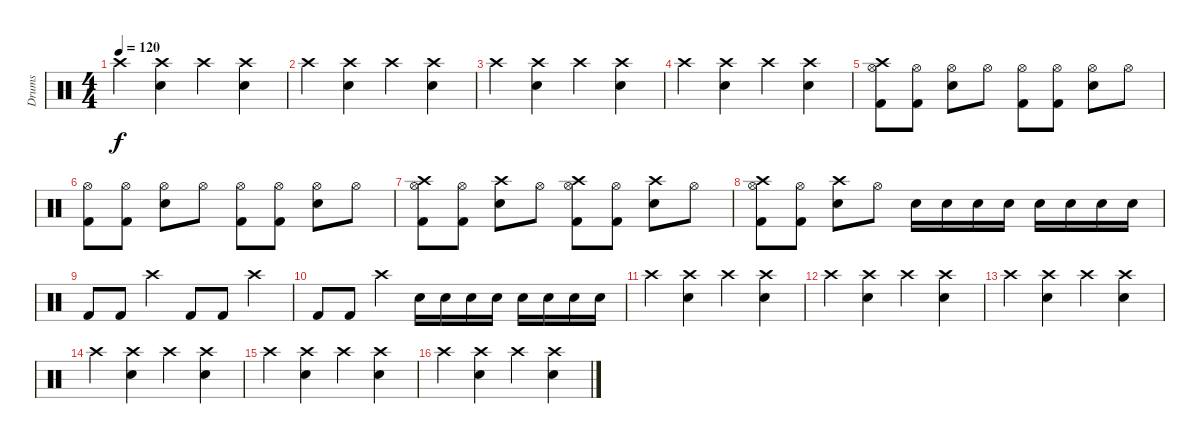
\track ("Drums" "Drums") {instrument percussion}
\staff {score}
\articulation defaults
\ts (4 4)
\tempo 120
\clef neutral
\ks c "Crash high (hit)".4{dy f}
("Crash high (hit)" "Snare (hit) 2").4 "Crash high (hit)".4 ("Crash high (hit)" "Snare (hit) 2").4 |
"Crash high (hit)".4 ("Crash high (hit)" "Snare (hit) 2").4 "Crash high (hit)".4 ("Crash high (hit)" "Snare (hit) 2").4 |
"Crash high (hit)".4 ("Crash high (hit)" "Snare (hit) 2").4 "Crash high (hit)".4 ("Crash high (hit)" "Snare (hit) 2").4 |
"Crash high (hit)".4 ("Crash high (hit)" "Snare (hit) 2").4 "Crash high (hit)".4 ("Crash high (hit)" "Snare (hit) 2").4 |
("Hi-Hat (open)" "Kick (hit) 2" "Crash high (hit)").8 ("Hi-Hat (open)" "Kick (hit) 2").8 ("Hi-Hat (open)" "Snare (hit) 2").8 "Hi-Hat (open)".8 ("Hi-Hat (open)" "Kick (hit) 2").8 ("Hi-Hat (open)" "Kick (hit) 2").8 ("Hi-Hat (open)" "Snare (hit) 2").8 "Hi-Hat (open)".8 |
("Hi-Hat (open)" "Kick (hit) 2").8 ("Hi-Hat (open)" "Kick (hit) 2").8 ("Hi-Hat (open)" "Snare (hit) 2").8 "Hi-Hat (open)".8 ("Hi-Hat (open)" "Kick (hit) 2").8 ("Hi-Hat (open)" "Kick (hit) 2").8 ("Hi-Hat (open)" "Snare (hit) 2").8 "Hi-Hat (open)".8 |
("Hi-Hat (open)" "Kick (hit) 2" "Crash high (hit)").8 ("Hi-Hat (open)" "Kick (hit) 2").8 ("Snare (hit) 2" "Crash high (hit)").8 "Hi-Hat (open)".8 ("Hi-Hat (open)" "Kick (hit) 2" "Crash high (hit)").8 ("Hi-Hat (open)" "Kick (hit) 2").8 ("Snare (hit) 2" "Crash high (hit)").8 "Hi-Hat (open)".8 |
("Hi-Hat (open)" "Kick (hit) 2" "Crash high (hit)").8 ("Hi-Hat (open)" "Kick (hit) 2").8 ("Snare (hit) 2" "Crash high (hit)").8 "Hi-Hat (open)".8 "Snare (hit) 2".16 "Snare (hit) 2".16 "Snare (hit) 2".16 "Snare (hit) 2".16 "Snare (hit) 2".16 "Snare (hit) 2".16 "Snare (hit) 2".16 "Snare (hit) 2".16 |
"Kick (hit) 2".8 "Kick (hit) 2".8 "Crash high (hit)".4 "Kick (hit) 2".8 "Kick (hit) 2".8 "Crash high (hit)".4 |
"Kick (hit) 2".8 "Kick (hit) 2".8 "Crash high (hit)".4 "Snare (hit) 2".16 "Snare (hit) 2".16 "Snare (hit) 2".16 "Snare (hit) 2".16 "Snare (hit) 2".16 "Snare (hit) 2".16 "Snare (hit) 2".16 "Snare (hit) 2".16 |
"Crash high (hit)".4 ("Crash high (hit)" "Snare (hit) 2").4 "Crash high (hit)".4 ("Crash high (hit)" "Snare (hit) 2").4 |
"Crash high (hit)".4 ("Crash high (hit)" "Snare (hit) 2").4 "Crash high (hit)".4 ("Crash high (hit)" "Snare (hit) 2").4 |
"Crash high (hit)".4 ("Crash high (hit)" "Snare (hit) 2").4 "Crash high (hit)".4 ("Crash high (hit)" "Snare (hit) 2").4 |
"Crash high (hit)".4 ("Crash high (hit)" "Snare (hit) 2").4 "Crash high (hit)".4 ("Crash high (hit)" "Snare (hit) 2").4 |
"Crash high (hit)".4 ("Crash high (hit)" "Snare (hit) 2").4 "Crash high (hit)".4 ("Crash high (hit)" "Snare (hit) 2").4 |
"Crash high (hit)".4 ("Crash high (hit)" "Snare (hit) 2").4 "Crash high (hit)".4 ("Crash high (hit)" "Snare (hit) 2").4
